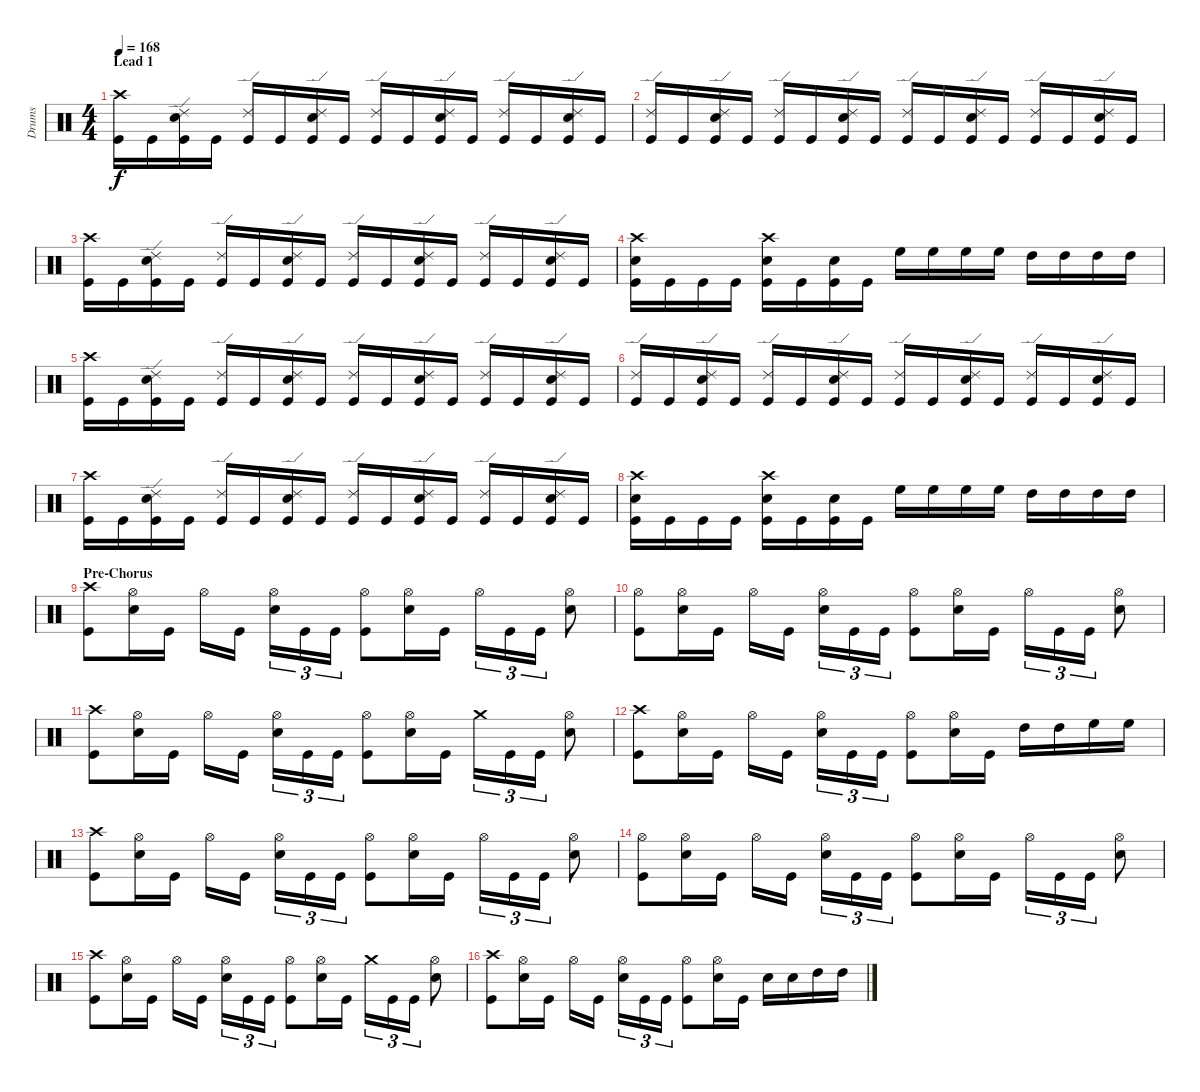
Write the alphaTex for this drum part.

\track ("Drums" "Drums") {instrument percussion}
\staff {score}
\articulation defaults
\ts (4 4)
\section ("" "Lead 1")
\tempo 168
\clef neutral
\ks c
("Crash high (hit)" "Kick (hit)").16{dy f} "Kick (hit)".16 ("Ride (edge) 2" "Electric Snare (hit)" "Kick (hit)").16 "Kick (hit)".16 ("Ride (edge) 2" "Kick (hit)").16 "Kick (hit)".16 ("Ride (edge) 2" "Electric Snare (hit)" "Kick (hit)").16 "Kick (hit)".16 ("Ride (edge) 2" "Kick (hit)").16 "Kick (hit)".16 ("Ride (edge) 2" "Electric Snare (hit)" "Kick (hit)").16 "Kick (hit)".16 ("Ride (edge) 2" "Kick (hit)").16 "Kick (hit)".16 ("Ride (edge) 2" "Electric Snare (hit)" "Kick (hit)").16 "Kick (hit)".16 |
("Ride (edge) 2" "Kick (hit)").16 "Kick (hit)".16 ("Ride (edge) 2" "Electric Snare (hit)" "Kick (hit)").16 "Kick (hit)".16 ("Ride (edge) 2" "Kick (hit)").16 "Kick (hit)".16 ("Ride (edge) 2" "Electric Snare (hit)" "Kick (hit)").16 "Kick (hit)".16 ("Ride (edge) 2" "Kick (hit)").16 "Kick (hit)".16 ("Ride (edge) 2" "Electric Snare (hit)" "Kick (hit)").16 "Kick (hit)".16 ("Ride (edge) 2" "Kick (hit)").16 "Kick (hit)".16 ("Ride (edge) 2" "Electric Snare (hit)" "Kick (hit)").16 "Kick (hit)".16 |
("Crash high (hit)" "Kick (hit)").16 "Kick (hit)".16 ("Ride (edge) 2" "Electric Snare (hit)" "Kick (hit)").16 "Kick (hit)".16 ("Ride (edge) 2" "Kick (hit)").16 "Kick (hit)".16 ("Ride (edge) 2" "Electric Snare (hit)" "Kick (hit)").16 "Kick (hit)".16 ("Ride (edge) 2" "Kick (hit)").16 "Kick (hit)".16 ("Ride (edge) 2" "Electric Snare (hit)" "Kick (hit)").16 "Kick (hit)".16 ("Ride (edge) 2" "Kick (hit)").16 "Kick (hit)".16 ("Ride (edge) 2" "Electric Snare (hit)" "Kick (hit)").16 "Kick (hit)".16 |
("Crash high (hit)" "Electric Snare (hit)" "Kick (hit)").16 "Kick (hit)".16 "Kick (hit)".16 "Kick (hit)".16 ("Crash high (hit)" "Electric Snare (hit)" "Kick (hit)").16 "Kick (hit)".16 ("Electric Snare (hit)" "Kick (hit)").16 "Kick (hit)".16 "High Floor Tom (hit)".16 "High Floor Tom (hit)".16 "High Floor Tom (hit)".16 "High Floor Tom (hit)".16 "High Tom (hit)".16 "High Tom (hit)".16 "High Tom (hit)".16 "High Tom (hit)".16 |
("Crash high (hit)" "Kick (hit)").16 "Kick (hit)".16 ("Ride (edge) 2" "Electric Snare (hit)" "Kick (hit)").16 "Kick (hit)".16 ("Ride (edge) 2" "Kick (hit)").16 "Kick (hit)".16 ("Ride (edge) 2" "Electric Snare (hit)" "Kick (hit)").16 "Kick (hit)".16 ("Ride (edge) 2" "Kick (hit)").16 "Kick (hit)".16 ("Ride (edge) 2" "Electric Snare (hit)" "Kick (hit)").16 "Kick (hit)".16 ("Ride (edge) 2" "Kick (hit)").16 "Kick (hit)".16 ("Ride (edge) 2" "Electric Snare (hit)" "Kick (hit)").16 "Kick (hit)".16 |
("Ride (edge) 2" "Kick (hit)").16 "Kick (hit)".16 ("Ride (edge) 2" "Snare (hit) 2" "Kick (hit)").16 "Kick (hit)".16 ("Ride (edge) 2" "Kick (hit)").16 "Kick (hit)".16 ("Ride (edge) 2" "Electric Snare (hit)" "Kick (hit)").16 "Kick (hit)".16 ("Ride (edge) 2" "Kick (hit)").16 "Kick (hit)".16 ("Ride (edge) 2" "Electric Snare (hit)" "Kick (hit)").16 "Kick (hit)".16 ("Ride (edge) 2" "Kick (hit)").16 "Kick (hit)".16 ("Ride (edge) 2" "Electric Snare (hit)" "Kick (hit)").16 "Kick (hit)".16 |
("Crash high (hit)" "Kick (hit)").16 "Kick (hit)".16 ("Ride (edge) 2" "Electric Snare (hit)" "Kick (hit)").16 "Kick (hit)".16 ("Ride (edge) 2" "Kick (hit)").16 "Kick (hit)".16 ("Ride (edge) 2" "Electric Snare (hit)" "Kick (hit)").16 "Kick (hit)".16 ("Ride (edge) 2" "Kick (hit)").16 "Kick (hit)".16 ("Ride (edge) 2" "Electric Snare (hit)" "Kick (hit)").16 "Kick (hit)".16 ("Ride (edge) 2" "Kick (hit)").16 "Kick (hit)".16 ("Ride (edge) 2" "Electric Snare (hit)" "Kick (hit)").16 "Kick (hit)".16 |
("Crash high (hit)" "Electric Snare (hit)" "Kick (hit)").16 "Kick (hit)".16 "Kick (hit)".16 "Kick (hit)".16 ("Crash high (hit)" "Electric Snare (hit)" "Kick (hit)").16 "Kick (hit)".16 ("Electric Snare (hit)" "Kick (hit)").16 "Kick (hit)".16 "High Floor Tom (hit)".16 "High Floor Tom (hit)".16 "High Floor Tom (hit)".16 "High Floor Tom (hit)".16 "High Tom (hit)".16 "High Tom (hit)".16 "High Tom (hit)".16 "High Tom (hit)".16 |
\section ("" "Pre-Chorus")
("Crash high (hit)" "Kick (hit)").8 ("Hi-Hat (open)" "Electric Snare (hit)").16 "Kick (hit)".16 "Hi-Hat (open)".16 "Kick (hit)".16 ("Hi-Hat (open)" "Electric Snare (hit)").16{tu (3 2)} "Kick (hit)".16{tu (3 2)} "Kick (hit)".16{tu (3 2)} ("Hi-Hat (open)" "Kick (hit)").8 ("Hi-Hat (open)" "Electric Snare (hit)").16 "Kick (hit)".16 "Hi-Hat (open)".16{tu (3 2)} "Kick (hit)".16{tu (3 2)} "Kick (hit)".16{tu (3 2)} ("Hi-Hat (open)" "Electric Snare (hit)").8 |
("Hi-Hat (open)" "Kick (hit)").8 ("Hi-Hat (open)" "Electric Snare (hit)").16 "Kick (hit)".16 "Hi-Hat (open)".16 "Kick (hit)".16 ("Hi-Hat (open)" "Electric Snare (hit)").16{tu (3 2)} "Kick (hit)".16{tu (3 2)} "Kick (hit)".16{tu (3 2)} ("Hi-Hat (open)" "Kick (hit)").8 ("Hi-Hat (open)" "Electric Snare (hit)").16 "Kick (hit)".16 "Hi-Hat (open)".16{tu (3 2)} "Kick (hit)".16{tu (3 2)} "Kick (hit)".16{tu (3 2)} ("Hi-Hat (open)" "Electric Snare (hit)").8 |
("Crash high (hit)" "Kick (hit)").8 ("Hi-Hat (open)" "Electric Snare (hit)").16 "Kick (hit)".16 "Hi-Hat (open)".16 "Kick (hit)".16 ("Hi-Hat (open)" "Electric Snare (hit)").16{tu (3 2)} "Kick (hit)".16{tu (3 2)} "Kick (hit)".16{tu (3 2)} ("Hi-Hat (open)" "Kick (hit)").8 ("Hi-Hat (open)" "Electric Snare (hit)").16 "Kick (hit)".16 "Crash medium (hit)".16{tu (3 2)} "Kick (hit)".16{tu (3 2)} "Kick (hit)".16{tu (3 2)} ("Hi-Hat (open)" "Electric Snare (hit)").8 |
("Crash high (hit)" "Kick (hit)").8 ("Hi-Hat (open)" "Electric Snare (hit)").16 "Kick (hit)".16 "Hi-Hat (open)".16 "Kick (hit)".16 ("Hi-Hat (open)" "Electric Snare (hit)").16{tu (3 2)} "Kick (hit)".16{tu (3 2)} "Kick (hit)".16{tu (3 2)} ("Hi-Hat (open)" "Kick (hit)").8 ("Hi-Hat (open)" "Electric Snare (hit)").16 "Kick (hit)".16 "High Tom (hit)".16 "High Tom (hit)".16 "High Floor Tom (hit)".16 "High Floor Tom (hit)".16 |
("Crash high (hit)" "Kick (hit)").8 ("Hi-Hat (open)" "Electric Snare (hit)").16 "Kick (hit)".16 "Hi-Hat (open)".16 "Kick (hit)".16 ("Hi-Hat (open)" "Electric Snare (hit)").16{tu (3 2)} "Kick (hit)".16{tu (3 2)} "Kick (hit)".16{tu (3 2)} ("Hi-Hat (open)" "Kick (hit)").8 ("Hi-Hat (open)" "Electric Snare (hit)").16 "Kick (hit)".16 "Hi-Hat (open)".16{tu (3 2)} "Kick (hit)".16{tu (3 2)} "Kick (hit)".16{tu (3 2)} ("Hi-Hat (open)" "Electric Snare (hit)").8 |
("Hi-Hat (open)" "Kick (hit)").8 ("Hi-Hat (open)" "Electric Snare (hit)").16 "Kick (hit)".16 "Hi-Hat (open)".16 "Kick (hit)".16 ("Hi-Hat (open)" "Electric Snare (hit)").16{tu (3 2)} "Kick (hit)".16{tu (3 2)} "Kick (hit)".16{tu (3 2)} ("Hi-Hat (open)" "Kick (hit)").8 ("Hi-Hat (open)" "Electric Snare (hit)").16 "Kick (hit)".16 "Hi-Hat (open)".16{tu (3 2)} "Kick (hit)".16{tu (3 2)} "Kick (hit)".16{tu (3 2)} ("Hi-Hat (open)" "Electric Snare (hit)").8 |
("Crash high (hit)" "Kick (hit)").8 ("Hi-Hat (open)" "Electric Snare (hit)").16 "Kick (hit)".16 "Hi-Hat (open)".16 "Kick (hit)".16 ("Hi-Hat (open)" "Electric Snare (hit)").16{tu (3 2)} "Kick (hit)".16{tu (3 2)} "Kick (hit)".16{tu (3 2)} ("Hi-Hat (open)" "Kick (hit)").8 ("Hi-Hat (open)" "Electric Snare (hit)").16 "Kick (hit)".16 "Crash medium (hit)".16{tu (3 2)} "Kick (hit)".16{tu (3 2)} "Kick (hit)".16{tu (3 2)} ("Hi-Hat (open)" "Electric Snare (hit)").8 |
("Crash high (hit)" "Kick (hit)").8 ("Hi-Hat (open)" "Electric Snare (hit)").16 "Kick (hit)".16 "Hi-Hat (open)".16 "Kick (hit)".16 ("Hi-Hat (open)" "Electric Snare (hit)").16{tu (3 2)} "Kick (hit)".16{tu (3 2)} "Kick (hit)".16{tu (3 2)} ("Hi-Hat (open)" "Kick (hit)").8 ("Hi-Hat (open)" "Electric Snare (hit)").16 "Kick (hit)".16 "Electric Snare (hit)".16 "Electric Snare (hit)".16 "High Tom (hit)".16 "High Tom (hit)".16
